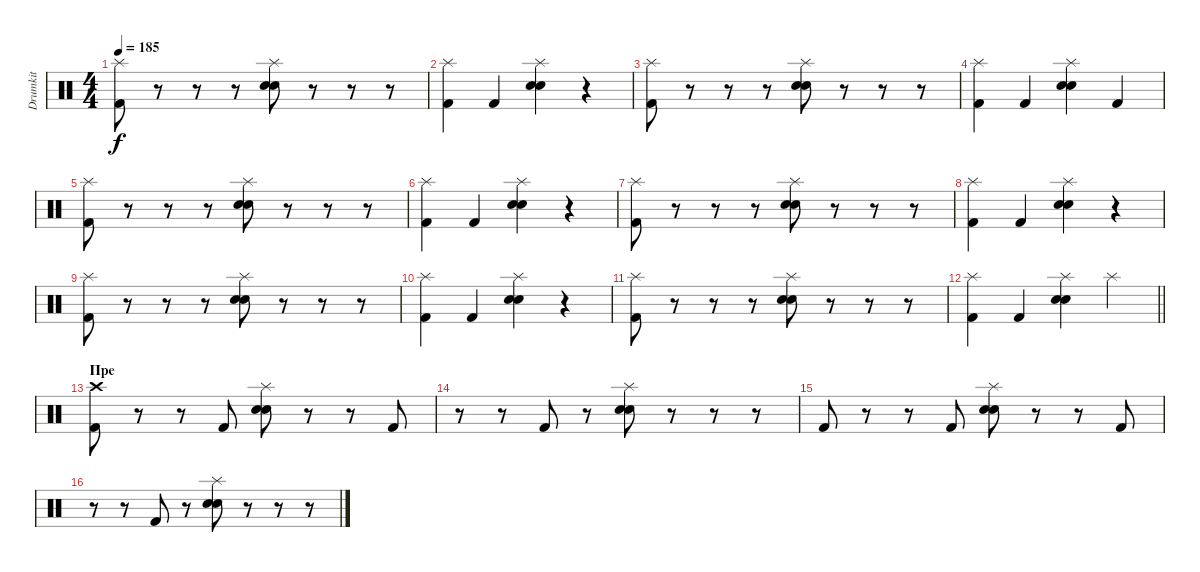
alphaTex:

\track ("Drumkit" "Drumkit") {instrument percussion}
\staff {score}
\articulation defaults
\ts (4 4)
\tempo 185
\clef neutral
\ks c
("Splash (hit)" "Kick (hit) 2").8{dy f} r.8 r.8 r.8 ("Splash (hit)" "Electric Snare (hit)" "Snare (hit) 2").8 r.8 r.8 r.8 |
("Splash (hit)" "Kick (hit) 2").4 "Kick (hit) 2".4 ("Splash (hit)" "Electric Snare (hit)" "Snare (hit) 2").4 r.4 |
("Splash (hit)" "Kick (hit) 2").8 r.8 r.8 r.8 ("Splash (hit)" "Electric Snare (hit)" "Snare (hit) 2").8 r.8 r.8 r.8 |
("Splash (hit)" "Kick (hit) 2").4 "Kick (hit) 2".4 ("Splash (hit)" "Electric Snare (hit)" "Snare (hit) 2").4 "Kick (hit) 2".4 |
("Splash (hit)" "Kick (hit) 2").8 r.8 r.8 r.8 ("Splash (hit)" "Electric Snare (hit)" "Snare (hit) 2").8 r.8 r.8 r.8 |
("Splash (hit)" "Kick (hit) 2").4 "Kick (hit) 2".4 ("Splash (hit)" "Electric Snare (hit)" "Snare (hit) 2").4 r.4 |
("Splash (hit)" "Kick (hit) 2").8 r.8 r.8 r.8 ("Splash (hit)" "Electric Snare (hit)" "Snare (hit) 2").8 r.8 r.8 r.8 |
("Splash (hit)" "Kick (hit) 2").4 "Kick (hit) 2".4 ("Splash (hit)" "Electric Snare (hit)" "Snare (hit) 2").4 r.4 |
("Splash (hit)" "Kick (hit) 2").8 r.8 r.8 r.8 ("Splash (hit)" "Electric Snare (hit)" "Snare (hit) 2").8 r.8 r.8 r.8 |
("Splash (hit)" "Kick (hit) 2").4 "Kick (hit) 2".4 ("Splash (hit)" "Electric Snare (hit)" "Snare (hit) 2").4 r.4 |
("Splash (hit)" "Kick (hit) 2").8 r.8 r.8 r.8 ("Splash (hit)" "Electric Snare (hit)" "Snare (hit) 2").8 r.8 r.8 r.8 |
\barLineRight lightlight
("Splash (hit)" "Kick (hit) 2").4 "Kick (hit) 2".4 ("Splash (hit)" "Electric Snare (hit)" "Snare (hit) 2").4 "Splash (hit)".4 |
\section ("" "Пре")
("Crash high (hit)" "Kick (hit) 2").8 r.8 r.8 "Kick (hit) 2".8 ("Splash (hit)" "Electric Snare (hit)" "Snare (hit) 2").8 r.8 r.8 "Kick (hit) 2".8 |
r.8 r.8 "Kick (hit) 2".8 r.8 ("Splash (hit)" "Electric Snare (hit)" "Snare (hit) 2").8 r.8 r.8 r.8 |
"Kick (hit) 2".8 r.8 r.8 "Kick (hit) 2".8 ("Splash (hit)" "Electric Snare (hit)" "Snare (hit) 2").8 r.8 r.8 "Kick (hit) 2".8 |
r.8 r.8 "Kick (hit) 2".8 r.8 ("Splash (hit)" "Electric Snare (hit)" "Snare (hit) 2").8 r.8 r.8 r.8
